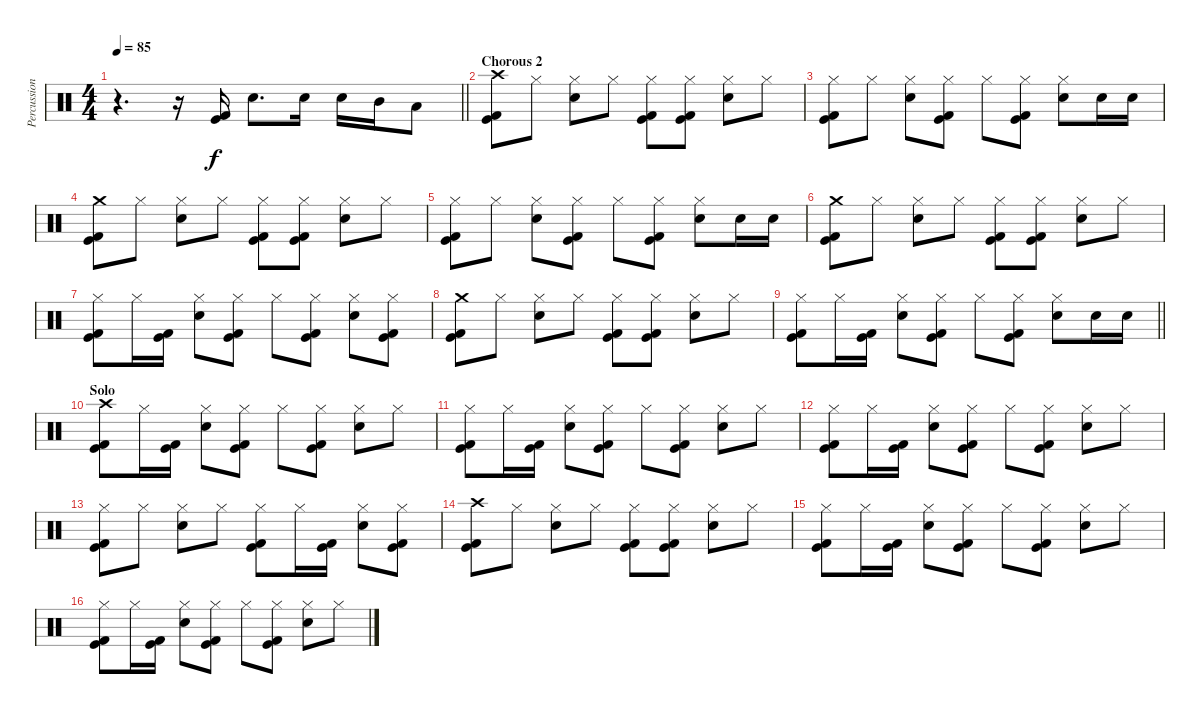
\track ("Percussion" "Percussion") {instrument percussion}
\staff {score}
\articulation defaults
\ts (4 4)
\tempo 85
\clef neutral
\barLineRight lightlight
\ks c
r.4{d dy f} r.16 ("Kick (hit)" "Kick (hit) 2").16 "Electric Snare (hit)".8{d} "Electric Snare (hit)".16 "Electric Snare (hit)".16 "Mid Tom (hit)".16 "Low Tom (hit)".8 |
\section ("" "Chorous 2")
("Crash high (hit)" "Kick (hit)" "Kick (hit) 2").8 "Hi-Hat (closed)".8 ("Hi-Hat (closed)" "Electric Snare (hit)").8 "Hi-Hat (closed)".8 ("Hi-Hat (closed)" "Kick (hit)" "Kick (hit) 2").8 ("Hi-Hat (closed)" "Kick (hit)" "Kick (hit) 2").8 ("Hi-Hat (closed)" "Electric Snare (hit)").8 "Hi-Hat (closed)".8 |
("Hi-Hat (closed)" "Kick (hit)" "Kick (hit) 2").8 "Hi-Hat (closed)".8 ("Hi-Hat (closed)" "Electric Snare (hit)").8 ("Hi-Hat (closed)" "Kick (hit)" "Kick (hit) 2").8 "Hi-Hat (closed)".8 ("Hi-Hat (closed)" "Kick (hit)" "Kick (hit) 2").8 ("Hi-Hat (closed)" "Electric Snare (hit)").8 "Electric Snare (hit)".16 "Electric Snare (hit)".16 |
("Crash medium (hit)" "Kick (hit)" "Kick (hit) 2").8 "Hi-Hat (closed)".8 ("Hi-Hat (closed)" "Electric Snare (hit)").8 "Hi-Hat (closed)".8 ("Hi-Hat (closed)" "Kick (hit)" "Kick (hit) 2").8 ("Hi-Hat (closed)" "Kick (hit)" "Kick (hit) 2").8 ("Hi-Hat (closed)" "Electric Snare (hit)").8 "Hi-Hat (closed)".8 |
("Hi-Hat (closed)" "Kick (hit)" "Kick (hit) 2").8 "Hi-Hat (closed)".8 ("Hi-Hat (closed)" "Electric Snare (hit)").8 ("Hi-Hat (closed)" "Kick (hit)" "Kick (hit) 2").8 "Hi-Hat (closed)".8 ("Hi-Hat (closed)" "Kick (hit)" "Kick (hit) 2").8 ("Hi-Hat (closed)" "Electric Snare (hit)").8 "Electric Snare (hit)".16 "Electric Snare (hit)".16 |
("Crash medium (hit)" "Kick (hit)" "Kick (hit) 2").8 "Hi-Hat (closed)".8 ("Hi-Hat (closed)" "Electric Snare (hit)").8 "Hi-Hat (closed)".8 ("Hi-Hat (closed)" "Kick (hit)" "Kick (hit) 2").8 ("Hi-Hat (closed)" "Kick (hit)" "Kick (hit) 2").8 ("Hi-Hat (closed)" "Electric Snare (hit)").8 "Hi-Hat (closed)".8 |
("Hi-Hat (closed)" "Kick (hit)" "Kick (hit) 2").8 "Hi-Hat (closed)".16 ("Kick (hit)" "Kick (hit) 2").16 ("Hi-Hat (closed)" "Electric Snare (hit)").8 ("Hi-Hat (closed)" "Kick (hit)" "Kick (hit) 2").8 "Hi-Hat (closed)".8 ("Hi-Hat (closed)" "Kick (hit)" "Kick (hit) 2").8 ("Hi-Hat (closed)" "Electric Snare (hit)").8 ("Hi-Hat (closed)" "Kick (hit)" "Kick (hit) 2").8 |
("Crash medium (hit)" "Kick (hit)" "Kick (hit) 2").8 "Hi-Hat (closed)".8 ("Hi-Hat (closed)" "Electric Snare (hit)").8 "Hi-Hat (closed)".8 ("Hi-Hat (closed)" "Kick (hit)" "Kick (hit) 2").8 ("Hi-Hat (closed)" "Kick (hit)" "Kick (hit) 2").8 ("Hi-Hat (closed)" "Electric Snare (hit)").8 "Hi-Hat (closed)".8 |
\barLineRight lightlight
("Hi-Hat (closed)" "Kick (hit)" "Kick (hit) 2").8 "Hi-Hat (closed)".16 ("Kick (hit)" "Kick (hit) 2").16 ("Hi-Hat (closed)" "Electric Snare (hit)").8 ("Hi-Hat (closed)" "Kick (hit)" "Kick (hit) 2").8 "Hi-Hat (closed)".8 ("Hi-Hat (closed)" "Kick (hit)" "Kick (hit) 2").8 ("Hi-Hat (closed)" "Electric Snare (hit)").8 "Electric Snare (hit)".16 "Electric Snare (hit)".16 |
\section ("" "Solo")
("Crash high (hit)" "Kick (hit)" "Kick (hit) 2").8 "Hi-Hat (closed)".16 ("Kick (hit)" "Kick (hit) 2").16 ("Hi-Hat (closed)" "Electric Snare (hit)").8 ("Hi-Hat (closed)" "Kick (hit)" "Kick (hit) 2").8 "Hi-Hat (closed)".8 ("Hi-Hat (closed)" "Kick (hit)" "Kick (hit) 2").8 ("Hi-Hat (closed)" "Electric Snare (hit)").8 "Hi-Hat (closed)".8 |
("Hi-Hat (closed)" "Kick (hit)" "Kick (hit) 2").8 "Hi-Hat (closed)".16 ("Kick (hit)" "Kick (hit) 2").16 ("Hi-Hat (closed)" "Electric Snare (hit)").8 ("Hi-Hat (closed)" "Kick (hit)" "Kick (hit) 2").8 "Hi-Hat (closed)".8 ("Hi-Hat (closed)" "Kick (hit)" "Kick (hit) 2").8 ("Hi-Hat (closed)" "Electric Snare (hit)").8 "Hi-Hat (closed)".8 |
("Hi-Hat (closed)" "Kick (hit)" "Kick (hit) 2").8 "Hi-Hat (closed)".16 ("Kick (hit)" "Kick (hit) 2").16 ("Hi-Hat (closed)" "Electric Snare (hit)").8 ("Hi-Hat (closed)" "Kick (hit)" "Kick (hit) 2").8 "Hi-Hat (closed)".8 ("Hi-Hat (closed)" "Kick (hit)" "Kick (hit) 2").8 ("Hi-Hat (closed)" "Electric Snare (hit)").8 "Hi-Hat (closed)".8 |
("Hi-Hat (closed)" "Kick (hit)" "Kick (hit) 2").8 "Hi-Hat (closed)".8 ("Hi-Hat (closed)" "Electric Snare (hit)").8 "Hi-Hat (closed)".8 ("Hi-Hat (closed)" "Kick (hit)" "Kick (hit) 2").8 "Hi-Hat (closed)".16 ("Kick (hit)" "Kick (hit) 2").16 ("Hi-Hat (closed)" "Electric Snare (hit)").8 ("Hi-Hat (closed)" "Kick (hit)" "Kick (hit) 2").8 |
("Crash high (hit)" "Kick (hit)" "Kick (hit) 2").8 "Hi-Hat (closed)".8 ("Hi-Hat (closed)" "Electric Snare (hit)").8 "Hi-Hat (closed)".8 ("Hi-Hat (closed)" "Kick (hit)" "Kick (hit) 2").8 ("Hi-Hat (closed)" "Kick (hit)" "Kick (hit) 2").8 ("Hi-Hat (closed)" "Electric Snare (hit)").8 "Hi-Hat (closed)".8 |
("Hi-Hat (closed)" "Kick (hit)" "Kick (hit) 2").8 "Hi-Hat (closed)".16 ("Kick (hit)" "Kick (hit) 2").16 ("Hi-Hat (closed)" "Electric Snare (hit)").8 ("Hi-Hat (closed)" "Kick (hit)" "Kick (hit) 2").8 "Hi-Hat (closed)".8 ("Hi-Hat (closed)" "Kick (hit)" "Kick (hit) 2").8 ("Hi-Hat (closed)" "Electric Snare (hit)").8 "Hi-Hat (closed)".8 |
("Hi-Hat (closed)" "Kick (hit)" "Kick (hit) 2").8 "Hi-Hat (closed)".16 ("Kick (hit)" "Kick (hit) 2").16 ("Hi-Hat (closed)" "Electric Snare (hit)").8 ("Hi-Hat (closed)" "Kick (hit)" "Kick (hit) 2").8 "Hi-Hat (closed)".8 ("Hi-Hat (closed)" "Kick (hit)" "Kick (hit) 2").8 ("Hi-Hat (closed)" "Electric Snare (hit)").8 "Hi-Hat (closed)".8
